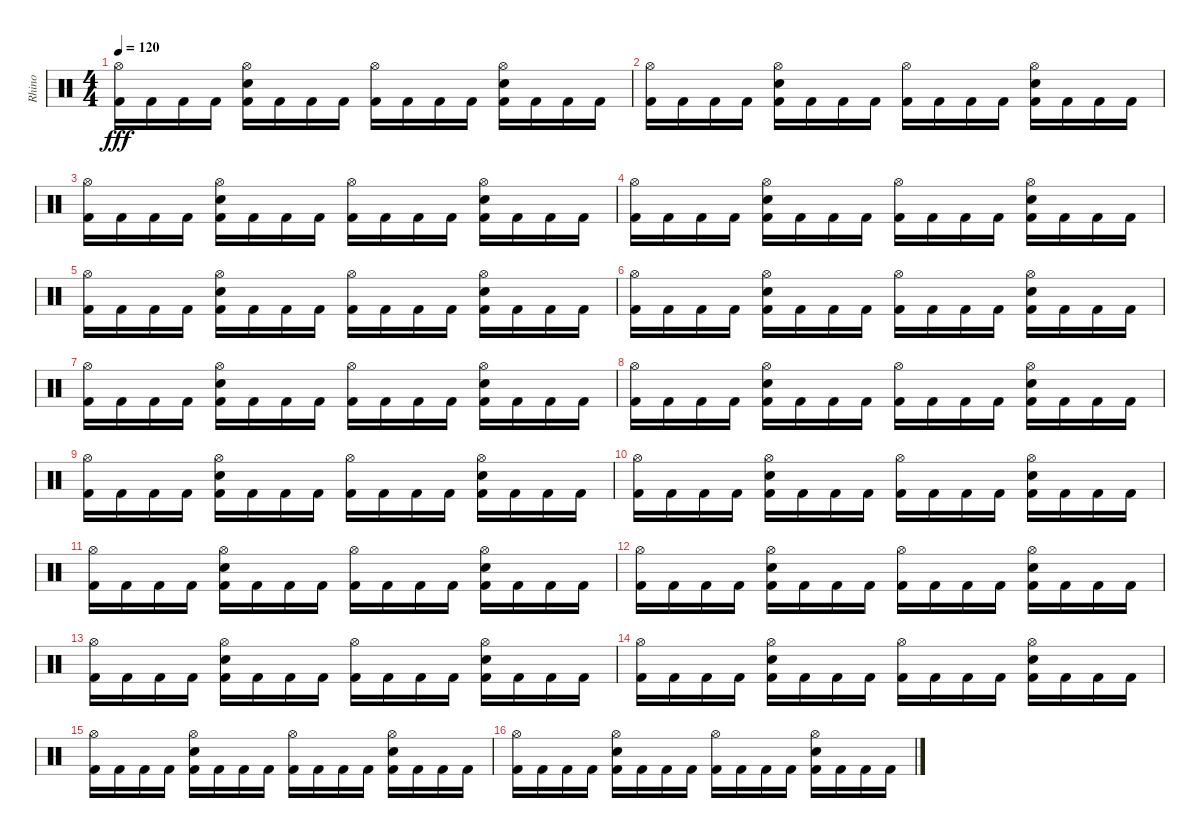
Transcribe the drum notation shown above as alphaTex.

\track ("Rhino" "Rhino") {instrument percussion}
\staff {score}
\articulation defaults
\ts (4 4)
\tempo 120
\clef neutral
\ks c
("Hi-Hat (open)" "Kick (hit) 2").16{dy fff} "Kick (hit) 2".16 "Kick (hit) 2".16 "Kick (hit) 2".16 ("Hi-Hat (open)" "Snare (hit) 2" "Kick (hit) 2").16 "Kick (hit) 2".16 "Kick (hit) 2".16 "Kick (hit) 2".16 ("Hi-Hat (open)" "Kick (hit) 2").16 "Kick (hit) 2".16 "Kick (hit) 2".16 "Kick (hit) 2".16 ("Hi-Hat (open)" "Snare (hit) 2" "Kick (hit) 2").16 "Kick (hit) 2".16 "Kick (hit) 2".16 "Kick (hit) 2".16 |
("Hi-Hat (open)" "Kick (hit) 2").16 "Kick (hit) 2".16 "Kick (hit) 2".16 "Kick (hit) 2".16 ("Hi-Hat (open)" "Snare (hit) 2" "Kick (hit) 2").16 "Kick (hit) 2".16 "Kick (hit) 2".16 "Kick (hit) 2".16 ("Hi-Hat (open)" "Kick (hit) 2").16 "Kick (hit) 2".16 "Kick (hit) 2".16 "Kick (hit) 2".16 ("Hi-Hat (open)" "Snare (hit) 2" "Kick (hit) 2").16 "Kick (hit) 2".16 "Kick (hit) 2".16 "Kick (hit) 2".16 |
("Hi-Hat (open)" "Kick (hit) 2").16 "Kick (hit) 2".16 "Kick (hit) 2".16 "Kick (hit) 2".16 ("Hi-Hat (open)" "Snare (hit) 2" "Kick (hit) 2").16 "Kick (hit) 2".16 "Kick (hit) 2".16 "Kick (hit) 2".16 ("Hi-Hat (open)" "Kick (hit) 2").16 "Kick (hit) 2".16 "Kick (hit) 2".16 "Kick (hit) 2".16 ("Hi-Hat (open)" "Snare (hit) 2" "Kick (hit) 2").16 "Kick (hit) 2".16 "Kick (hit) 2".16 "Kick (hit) 2".16 |
("Hi-Hat (open)" "Kick (hit) 2").16 "Kick (hit) 2".16 "Kick (hit) 2".16 "Kick (hit) 2".16 ("Hi-Hat (open)" "Snare (hit) 2" "Kick (hit) 2").16 "Kick (hit) 2".16 "Kick (hit) 2".16 "Kick (hit) 2".16 ("Hi-Hat (open)" "Kick (hit) 2").16 "Kick (hit) 2".16 "Kick (hit) 2".16 "Kick (hit) 2".16 ("Hi-Hat (open)" "Snare (hit) 2" "Kick (hit) 2").16 "Kick (hit) 2".16 "Kick (hit) 2".16 "Kick (hit) 2".16 |
("Hi-Hat (open)" "Kick (hit) 2").16 "Kick (hit) 2".16 "Kick (hit) 2".16 "Kick (hit) 2".16 ("Hi-Hat (open)" "Snare (hit) 2" "Kick (hit) 2").16 "Kick (hit) 2".16 "Kick (hit) 2".16 "Kick (hit) 2".16 ("Hi-Hat (open)" "Kick (hit) 2").16 "Kick (hit) 2".16 "Kick (hit) 2".16 "Kick (hit) 2".16 ("Hi-Hat (open)" "Snare (hit) 2" "Kick (hit) 2").16 "Kick (hit) 2".16 "Kick (hit) 2".16 "Kick (hit) 2".16 |
("Hi-Hat (open)" "Kick (hit) 2").16 "Kick (hit) 2".16 "Kick (hit) 2".16 "Kick (hit) 2".16 ("Hi-Hat (open)" "Snare (hit) 2" "Kick (hit) 2").16 "Kick (hit) 2".16 "Kick (hit) 2".16 "Kick (hit) 2".16 ("Hi-Hat (open)" "Kick (hit) 2").16 "Kick (hit) 2".16 "Kick (hit) 2".16 "Kick (hit) 2".16 ("Hi-Hat (open)" "Snare (hit) 2" "Kick (hit) 2").16 "Kick (hit) 2".16 "Kick (hit) 2".16 "Kick (hit) 2".16 |
("Hi-Hat (open)" "Kick (hit) 2").16 "Kick (hit) 2".16 "Kick (hit) 2".16 "Kick (hit) 2".16 ("Hi-Hat (open)" "Snare (hit) 2" "Kick (hit) 2").16 "Kick (hit) 2".16 "Kick (hit) 2".16 "Kick (hit) 2".16 ("Hi-Hat (open)" "Kick (hit) 2").16 "Kick (hit) 2".16 "Kick (hit) 2".16 "Kick (hit) 2".16 ("Hi-Hat (open)" "Snare (hit) 2" "Kick (hit) 2").16 "Kick (hit) 2".16 "Kick (hit) 2".16 "Kick (hit) 2".16 |
("Hi-Hat (open)" "Kick (hit) 2").16 "Kick (hit) 2".16 "Kick (hit) 2".16 "Kick (hit) 2".16 ("Hi-Hat (open)" "Snare (hit) 2" "Kick (hit) 2").16 "Kick (hit) 2".16 "Kick (hit) 2".16 "Kick (hit) 2".16 ("Hi-Hat (open)" "Kick (hit) 2").16 "Kick (hit) 2".16 "Kick (hit) 2".16 "Kick (hit) 2".16 ("Hi-Hat (open)" "Snare (hit) 2" "Kick (hit) 2").16 "Kick (hit) 2".16 "Kick (hit) 2".16 "Kick (hit) 2".16 |
("Hi-Hat (open)" "Kick (hit) 2").16 "Kick (hit) 2".16 "Kick (hit) 2".16 "Kick (hit) 2".16 ("Hi-Hat (open)" "Snare (hit) 2" "Kick (hit) 2").16 "Kick (hit) 2".16 "Kick (hit) 2".16 "Kick (hit) 2".16 ("Hi-Hat (open)" "Kick (hit) 2").16 "Kick (hit) 2".16 "Kick (hit) 2".16 "Kick (hit) 2".16 ("Hi-Hat (open)" "Snare (hit) 2" "Kick (hit) 2").16 "Kick (hit) 2".16 "Kick (hit) 2".16 "Kick (hit) 2".16 |
("Hi-Hat (open)" "Kick (hit) 2").16 "Kick (hit) 2".16 "Kick (hit) 2".16 "Kick (hit) 2".16 ("Hi-Hat (open)" "Snare (hit) 2" "Kick (hit) 2").16 "Kick (hit) 2".16 "Kick (hit) 2".16 "Kick (hit) 2".16 ("Hi-Hat (open)" "Kick (hit) 2").16 "Kick (hit) 2".16 "Kick (hit) 2".16 "Kick (hit) 2".16 ("Hi-Hat (open)" "Snare (hit) 2" "Kick (hit) 2").16 "Kick (hit) 2".16 "Kick (hit) 2".16 "Kick (hit) 2".16 |
("Hi-Hat (open)" "Kick (hit) 2").16 "Kick (hit) 2".16 "Kick (hit) 2".16 "Kick (hit) 2".16 ("Hi-Hat (open)" "Snare (hit) 2" "Kick (hit) 2").16 "Kick (hit) 2".16 "Kick (hit) 2".16 "Kick (hit) 2".16 ("Hi-Hat (open)" "Kick (hit) 2").16 "Kick (hit) 2".16 "Kick (hit) 2".16 "Kick (hit) 2".16 ("Hi-Hat (open)" "Snare (hit) 2" "Kick (hit) 2").16 "Kick (hit) 2".16 "Kick (hit) 2".16 "Kick (hit) 2".16 |
("Hi-Hat (open)" "Kick (hit) 2").16 "Kick (hit) 2".16 "Kick (hit) 2".16 "Kick (hit) 2".16 ("Hi-Hat (open)" "Snare (hit) 2" "Kick (hit) 2").16 "Kick (hit) 2".16 "Kick (hit) 2".16 "Kick (hit) 2".16 ("Hi-Hat (open)" "Kick (hit) 2").16 "Kick (hit) 2".16 "Kick (hit) 2".16 "Kick (hit) 2".16 ("Hi-Hat (open)" "Snare (hit) 2" "Kick (hit) 2").16 "Kick (hit) 2".16 "Kick (hit) 2".16 "Kick (hit) 2".16 |
("Hi-Hat (open)" "Kick (hit) 2").16 "Kick (hit) 2".16 "Kick (hit) 2".16 "Kick (hit) 2".16 ("Hi-Hat (open)" "Snare (hit) 2" "Kick (hit) 2").16 "Kick (hit) 2".16 "Kick (hit) 2".16 "Kick (hit) 2".16 ("Hi-Hat (open)" "Kick (hit) 2").16 "Kick (hit) 2".16 "Kick (hit) 2".16 "Kick (hit) 2".16 ("Hi-Hat (open)" "Snare (hit) 2" "Kick (hit) 2").16 "Kick (hit) 2".16 "Kick (hit) 2".16 "Kick (hit) 2".16 |
("Hi-Hat (open)" "Kick (hit) 2").16 "Kick (hit) 2".16 "Kick (hit) 2".16 "Kick (hit) 2".16 ("Hi-Hat (open)" "Snare (hit) 2" "Kick (hit) 2").16 "Kick (hit) 2".16 "Kick (hit) 2".16 "Kick (hit) 2".16 ("Hi-Hat (open)" "Kick (hit) 2").16 "Kick (hit) 2".16 "Kick (hit) 2".16 "Kick (hit) 2".16 ("Hi-Hat (open)" "Snare (hit) 2" "Kick (hit) 2").16 "Kick (hit) 2".16 "Kick (hit) 2".16 "Kick (hit) 2".16 |
("Hi-Hat (open)" "Kick (hit) 2").16 "Kick (hit) 2".16 "Kick (hit) 2".16 "Kick (hit) 2".16 ("Hi-Hat (open)" "Snare (hit) 2" "Kick (hit) 2").16 "Kick (hit) 2".16 "Kick (hit) 2".16 "Kick (hit) 2".16 ("Hi-Hat (open)" "Kick (hit) 2").16 "Kick (hit) 2".16 "Kick (hit) 2".16 "Kick (hit) 2".16 ("Hi-Hat (open)" "Snare (hit) 2" "Kick (hit) 2").16 "Kick (hit) 2".16 "Kick (hit) 2".16 "Kick (hit) 2".16 |
("Hi-Hat (open)" "Kick (hit) 2").16 "Kick (hit) 2".16 "Kick (hit) 2".16 "Kick (hit) 2".16 ("Hi-Hat (open)" "Snare (hit) 2" "Kick (hit) 2").16 "Kick (hit) 2".16 "Kick (hit) 2".16 "Kick (hit) 2".16 ("Hi-Hat (open)" "Kick (hit) 2").16 "Kick (hit) 2".16 "Kick (hit) 2".16 "Kick (hit) 2".16 ("Hi-Hat (open)" "Snare (hit) 2" "Kick (hit) 2").16 "Kick (hit) 2".16 "Kick (hit) 2".16 "Kick (hit) 2".16
